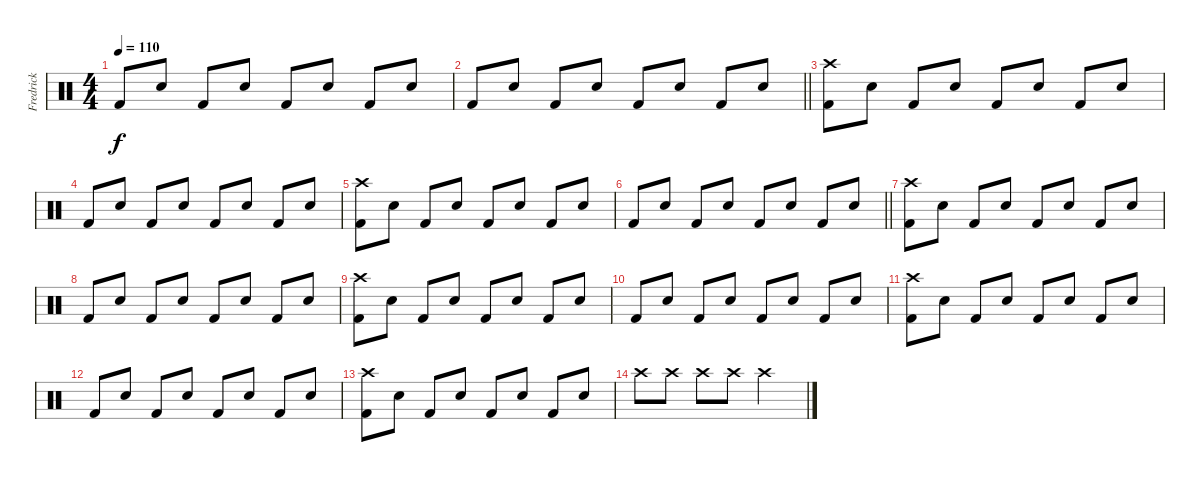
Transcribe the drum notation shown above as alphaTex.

\track ("Fredrick" "Fredrick") {instrument percussion}
\staff {score}
\articulation defaults
\ts (4 4)
\tempo 110
\clef neutral
\ks c "Kick (hit) 2".8{dy f} "Electric Snare (hit)".8 "Kick (hit) 2".8 "Electric Snare (hit)".8 "Kick (hit) 2".8 "Electric Snare (hit)".8 "Kick (hit) 2".8 "Electric Snare (hit)".8
|
\barLineRight lightlight "Kick (hit) 2".8 "Electric Snare (hit)".8 "Kick (hit) 2".8 "Electric Snare (hit)".8 "Kick (hit) 2".8 "Electric Snare (hit)".8 "Kick (hit) 2".8 "Electric Snare (hit)".8
|
("Crash high (hit)" "Kick (hit) 2").8 "Electric Snare (hit)".8 "Kick (hit) 2".8 "Electric Snare (hit)".8 "Kick (hit) 2".8 "Electric Snare (hit)".8 "Kick (hit) 2".8 "Electric Snare (hit)".8 |
"Kick (hit) 2".8 "Electric Snare (hit)".8 "Kick (hit) 2".8 "Electric Snare (hit)".8 "Kick (hit) 2".8 "Electric Snare (hit)".8 "Kick (hit) 2".8 "Electric Snare (hit)".8 |
("Crash high (hit)" "Kick (hit) 2").8 "Electric Snare (hit)".8 "Kick (hit) 2".8 "Electric Snare (hit)".8 "Kick (hit) 2".8 "Electric Snare (hit)".8 "Kick (hit) 2".8 "Electric Snare (hit)".8 |
\barLineRight lightlight "Kick (hit) 2".8 "Electric Snare (hit)".8 "Kick (hit) 2".8 "Electric Snare (hit)".8 "Kick (hit) 2".8 "Electric Snare (hit)".8 "Kick (hit) 2".8 "Electric Snare (hit)".8
|
("Crash high (hit)" "Kick (hit) 2").8 "Electric Snare (hit)".8 "Kick (hit) 2".8 "Electric Snare (hit)".8 "Kick (hit) 2".8 "Electric Snare (hit)".8 "Kick (hit) 2".8 "Electric Snare (hit)".8 |
"Kick (hit) 2".8 "Electric Snare (hit)".8 "Kick (hit) 2".8 "Electric Snare (hit)".8 "Kick (hit) 2".8 "Electric Snare (hit)".8 "Kick (hit) 2".8 "Electric Snare (hit)".8 |
("Crash high (hit)" "Kick (hit) 2").8 "Electric Snare (hit)".8 "Kick (hit) 2".8 "Electric Snare (hit)".8 "Kick (hit) 2".8 "Electric Snare (hit)".8 "Kick (hit) 2".8 "Electric Snare (hit)".8 |
"Kick (hit) 2".8 "Electric Snare (hit)".8 "Kick (hit) 2".8 "Electric Snare (hit)".8 "Kick (hit) 2".8 "Electric Snare (hit)".8 "Kick (hit) 2".8 "Electric Snare (hit)".8 |
("Crash high (hit)" "Kick (hit) 2").8 "Electric Snare (hit)".8 "Kick (hit) 2".8 "Electric Snare (hit)".8 "Kick (hit) 2".8 "Electric Snare (hit)".8 "Kick (hit) 2".8 "Electric Snare (hit)".8 |
"Kick (hit) 2".8 "Electric Snare (hit)".8 "Kick (hit) 2".8 "Electric Snare (hit)".8 "Kick (hit) 2".8 "Electric Snare (hit)".8 "Kick (hit) 2".8 "Electric Snare (hit)".8 |
("Crash high (hit)" "Kick (hit) 2").8 "Electric Snare (hit)".8 "Kick (hit) 2".8 "Electric Snare (hit)".8 "Kick (hit) 2".8 "Electric Snare (hit)".8 "Kick (hit) 2".8 "Electric Snare (hit)".8 |
"Crash high (hit)".8 "Crash high (hit)".8 "Crash high (hit)".8 "Crash high (hit)".8 "Crash high (hit)".2
